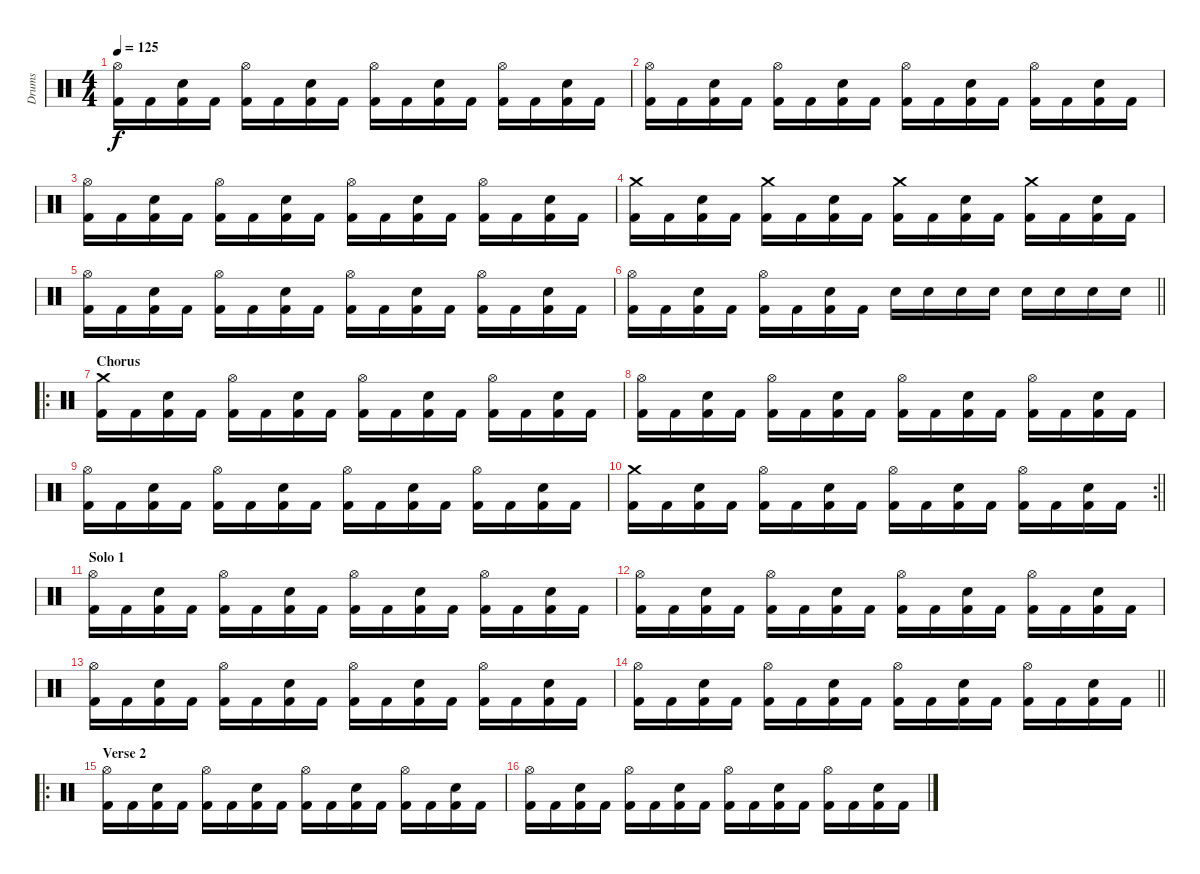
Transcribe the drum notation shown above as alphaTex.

\track ("Drums" "Drums") {instrument percussion}
\staff {score}
\articulation defaults
\ts (4 4)
\tempo 125
\clef neutral
\ks c
("Hi-Hat (open)" "Kick (hit) 2").16{dy f} "Kick (hit) 2".16 ("Snare (hit) 2" "Kick (hit) 2").16 "Kick (hit) 2".16 ("Hi-Hat (open)" "Kick (hit) 2").16 "Kick (hit) 2".16 ("Snare (hit) 2" "Kick (hit) 2").16 "Kick (hit) 2".16 ("Hi-Hat (open)" "Kick (hit) 2").16 "Kick (hit) 2".16 ("Snare (hit) 2" "Kick (hit) 2").16 "Kick (hit) 2".16 ("Hi-Hat (open)" "Kick (hit) 2").16 "Kick (hit) 2".16 ("Snare (hit) 2" "Kick (hit) 2").16 "Kick (hit) 2".16 |
("Hi-Hat (open)" "Kick (hit) 2").16 "Kick (hit) 2".16 ("Snare (hit) 2" "Kick (hit) 2").16 "Kick (hit) 2".16 ("Hi-Hat (open)" "Kick (hit) 2").16 "Kick (hit) 2".16 ("Snare (hit) 2" "Kick (hit) 2").16 "Kick (hit) 2".16 ("Hi-Hat (open)" "Kick (hit) 2").16 "Kick (hit) 2".16 ("Snare (hit) 2" "Kick (hit) 2").16 "Kick (hit) 2".16 ("Hi-Hat (open)" "Kick (hit) 2").16 "Kick (hit) 2".16 ("Snare (hit) 2" "Kick (hit) 2").16 "Kick (hit) 2".16 |
("Hi-Hat (open)" "Kick (hit) 2").16 "Kick (hit) 2".16 ("Snare (hit) 2" "Kick (hit) 2").16 "Kick (hit) 2".16 ("Hi-Hat (open)" "Kick (hit) 2").16 "Kick (hit) 2".16 ("Snare (hit) 2" "Kick (hit) 2").16 "Kick (hit) 2".16 ("Hi-Hat (open)" "Kick (hit) 2").16 "Kick (hit) 2".16 ("Snare (hit) 2" "Kick (hit) 2").16 "Kick (hit) 2".16 ("Hi-Hat (open)" "Kick (hit) 2").16 "Kick (hit) 2".16 ("Snare (hit) 2" "Kick (hit) 2").16 "Kick (hit) 2".16 |
("Crash medium (hit)" "Kick (hit) 2").16 "Kick (hit) 2".16 ("Snare (hit) 2" "Kick (hit) 2").16 "Kick (hit) 2".16 ("Crash medium (hit)" "Kick (hit) 2").16 "Kick (hit) 2".16 ("Snare (hit) 2" "Kick (hit) 2").16 "Kick (hit) 2".16 ("Crash medium (hit)" "Kick (hit) 2").16 "Kick (hit) 2".16 ("Snare (hit) 2" "Kick (hit) 2").16 "Kick (hit) 2".16 ("Crash medium (hit)" "Kick (hit) 2").16 "Kick (hit) 2".16 ("Snare (hit) 2" "Kick (hit) 2").16 "Kick (hit) 2".16 |
("Hi-Hat (open)" "Kick (hit) 2").16 "Kick (hit) 2".16 ("Snare (hit) 2" "Kick (hit) 2").16 "Kick (hit) 2".16 ("Hi-Hat (open)" "Kick (hit) 2").16 "Kick (hit) 2".16 ("Snare (hit) 2" "Kick (hit) 2").16 "Kick (hit) 2".16 ("Hi-Hat (open)" "Kick (hit) 2").16 "Kick (hit) 2".16 ("Snare (hit) 2" "Kick (hit) 2").16 "Kick (hit) 2".16 ("Hi-Hat (open)" "Kick (hit) 2").16 "Kick (hit) 2".16 ("Snare (hit) 2" "Kick (hit) 2").16 "Kick (hit) 2".16 |
\barLineRight lightlight
("Hi-Hat (open)" "Kick (hit) 2").16 "Kick (hit) 2".16 ("Snare (hit) 2" "Kick (hit) 2").16 "Kick (hit) 2".16 ("Hi-Hat (open)" "Kick (hit) 2").16 "Kick (hit) 2".16 ("Snare (hit) 2" "Kick (hit) 2").16 "Kick (hit) 2".16 "Snare (hit) 2".16 "Snare (hit) 2".16 "Snare (hit) 2".16 "Snare (hit) 2".16 "Snare (hit) 2".16 "Snare (hit) 2".16 "Snare (hit) 2".16 "Snare (hit) 2".16 |
\ro
\section ("" "Chorus")
("Crash medium (hit)" "Kick (hit) 2").16 "Kick (hit) 2".16 ("Snare (hit) 2" "Kick (hit) 2").16 "Kick (hit) 2".16 ("Hi-Hat (open)" "Kick (hit) 2").16 "Kick (hit) 2".16 ("Snare (hit) 2" "Kick (hit) 2").16 "Kick (hit) 2".16 ("Hi-Hat (open)" "Kick (hit) 2").16 "Kick (hit) 2".16 ("Snare (hit) 2" "Kick (hit) 2").16 "Kick (hit) 2".16 ("Hi-Hat (open)" "Kick (hit) 2").16 "Kick (hit) 2".16 ("Snare (hit) 2" "Kick (hit) 2").16 "Kick (hit) 2".16 |
("Hi-Hat (open)" "Kick (hit) 2").16 "Kick (hit) 2".16 ("Snare (hit) 2" "Kick (hit) 2").16 "Kick (hit) 2".16 ("Hi-Hat (open)" "Kick (hit) 2").16 "Kick (hit) 2".16 ("Snare (hit) 2" "Kick (hit) 2").16 "Kick (hit) 2".16 ("Hi-Hat (open)" "Kick (hit) 2").16 "Kick (hit) 2".16 ("Snare (hit) 2" "Kick (hit) 2").16 "Kick (hit) 2".16 ("Hi-Hat (open)" "Kick (hit) 2").16 "Kick (hit) 2".16 ("Snare (hit) 2" "Kick (hit) 2").16 "Kick (hit) 2".16 |
("Hi-Hat (open)" "Kick (hit) 2").16 "Kick (hit) 2".16 ("Snare (hit) 2" "Kick (hit) 2").16 "Kick (hit) 2".16 ("Hi-Hat (open)" "Kick (hit) 2").16 "Kick (hit) 2".16 ("Snare (hit) 2" "Kick (hit) 2").16 "Kick (hit) 2".16 ("Hi-Hat (open)" "Kick (hit) 2").16 "Kick (hit) 2".16 ("Snare (hit) 2" "Kick (hit) 2").16 "Kick (hit) 2".16 ("Hi-Hat (open)" "Kick (hit) 2").16 "Kick (hit) 2".16 ("Snare (hit) 2" "Kick (hit) 2").16 "Kick (hit) 2".16 |
\rc 2
\barLineRight lightlight
("Crash medium (hit)" "Kick (hit) 2").16 "Kick (hit) 2".16 ("Snare (hit) 2" "Kick (hit) 2").16 "Kick (hit) 2".16 ("Hi-Hat (open)" "Kick (hit) 2").16 "Kick (hit) 2".16 ("Snare (hit) 2" "Kick (hit) 2").16 "Kick (hit) 2".16 ("Hi-Hat (open)" "Kick (hit) 2").16 "Kick (hit) 2".16 ("Snare (hit) 2" "Kick (hit) 2").16 "Kick (hit) 2".16 ("Hi-Hat (open)" "Kick (hit) 2").16 "Kick (hit) 2".16 ("Snare (hit) 2" "Kick (hit) 2").16 "Kick (hit) 2".16 |
\section ("" "Solo 1")
("Hi-Hat (open)" "Kick (hit) 2").16 "Kick (hit) 2".16 ("Snare (hit) 2" "Kick (hit) 2").16 "Kick (hit) 2".16 ("Hi-Hat (open)" "Kick (hit) 2").16 "Kick (hit) 2".16 ("Snare (hit) 2" "Kick (hit) 2").16 "Kick (hit) 2".16 ("Hi-Hat (open)" "Kick (hit) 2").16 "Kick (hit) 2".16 ("Snare (hit) 2" "Kick (hit) 2").16 "Kick (hit) 2".16 ("Hi-Hat (open)" "Kick (hit) 2").16 "Kick (hit) 2".16 ("Snare (hit) 2" "Kick (hit) 2").16 "Kick (hit) 2".16 |
("Hi-Hat (open)" "Kick (hit) 2").16 "Kick (hit) 2".16 ("Snare (hit) 2" "Kick (hit) 2").16 "Kick (hit) 2".16 ("Hi-Hat (open)" "Kick (hit) 2").16 "Kick (hit) 2".16 ("Snare (hit) 2" "Kick (hit) 2").16 "Kick (hit) 2".16 ("Hi-Hat (open)" "Kick (hit) 2").16 "Kick (hit) 2".16 ("Snare (hit) 2" "Kick (hit) 2").16 "Kick (hit) 2".16 ("Hi-Hat (open)" "Kick (hit) 2").16 "Kick (hit) 2".16 ("Snare (hit) 2" "Kick (hit) 2").16 "Kick (hit) 2".16 |
("Hi-Hat (open)" "Kick (hit) 2").16 "Kick (hit) 2".16 ("Snare (hit) 2" "Kick (hit) 2").16 "Kick (hit) 2".16 ("Hi-Hat (open)" "Kick (hit) 2").16 "Kick (hit) 2".16 ("Snare (hit) 2" "Kick (hit) 2").16 "Kick (hit) 2".16 ("Hi-Hat (open)" "Kick (hit) 2").16 "Kick (hit) 2".16 ("Snare (hit) 2" "Kick (hit) 2").16 "Kick (hit) 2".16 ("Hi-Hat (open)" "Kick (hit) 2").16 "Kick (hit) 2".16 ("Snare (hit) 2" "Kick (hit) 2").16 "Kick (hit) 2".16 |
\barLineRight lightlight
("Hi-Hat (open)" "Kick (hit) 2").16 "Kick (hit) 2".16 ("Snare (hit) 2" "Kick (hit) 2").16 "Kick (hit) 2".16 ("Hi-Hat (open)" "Kick (hit) 2").16 "Kick (hit) 2".16 ("Snare (hit) 2" "Kick (hit) 2").16 "Kick (hit) 2".16 ("Hi-Hat (open)" "Kick (hit) 2").16 "Kick (hit) 2".16 ("Snare (hit) 2" "Kick (hit) 2").16 "Kick (hit) 2".16 ("Hi-Hat (open)" "Kick (hit) 2").16 "Kick (hit) 2".16 ("Snare (hit) 2" "Kick (hit) 2").16 "Kick (hit) 2".16 |
\ro
\section ("" "Verse 2")
("Hi-Hat (open)" "Kick (hit) 2").16 "Kick (hit) 2".16 ("Snare (hit) 2" "Kick (hit) 2").16 "Kick (hit) 2".16 ("Hi-Hat (open)" "Kick (hit) 2").16 "Kick (hit) 2".16 ("Snare (hit) 2" "Kick (hit) 2").16 "Kick (hit) 2".16 ("Hi-Hat (open)" "Kick (hit) 2").16 "Kick (hit) 2".16 ("Snare (hit) 2" "Kick (hit) 2").16 "Kick (hit) 2".16 ("Hi-Hat (open)" "Kick (hit) 2").16 "Kick (hit) 2".16 ("Snare (hit) 2" "Kick (hit) 2").16 "Kick (hit) 2".16 |
("Hi-Hat (open)" "Kick (hit) 2").16 "Kick (hit) 2".16 ("Snare (hit) 2" "Kick (hit) 2").16 "Kick (hit) 2".16 ("Hi-Hat (open)" "Kick (hit) 2").16 "Kick (hit) 2".16 ("Snare (hit) 2" "Kick (hit) 2").16 "Kick (hit) 2".16 ("Hi-Hat (open)" "Kick (hit) 2").16 "Kick (hit) 2".16 ("Snare (hit) 2" "Kick (hit) 2").16 "Kick (hit) 2".16 ("Hi-Hat (open)" "Kick (hit) 2").16 "Kick (hit) 2".16 ("Snare (hit) 2" "Kick (hit) 2").16 "Kick (hit) 2".16
